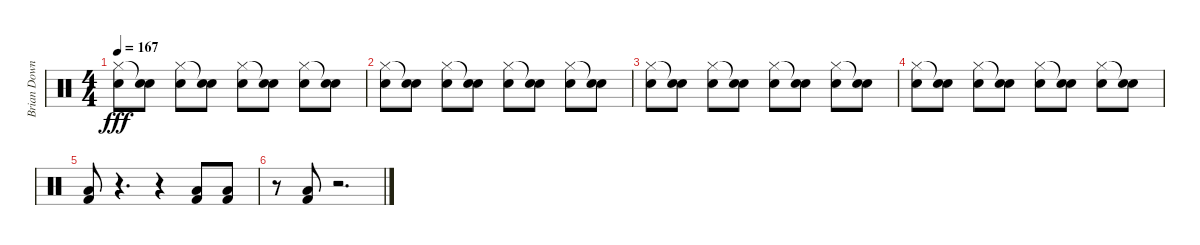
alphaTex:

\track ("Brian Downey" "Brian Down") {instrument percussion}
\staff {score}
\articulation defaults
\ts (4 4)
\tempo 167
\clef neutral
\ks c
("Hi-Hat (closed)" "Electric Snare (hit)").8{dy fff} ("Snare (hit)"{t} "Electric Snare (hit)").8 ("Hi-Hat (closed)" "Electric Snare (hit)").8 ("Snare (hit)"{t} "Electric Snare (hit)").8 ("Hi-Hat (closed)" "Electric Snare (hit)").8 ("Snare (hit)"{t} "Electric Snare (hit)").8 ("Hi-Hat (closed)" "Electric Snare (hit)").8 ("Snare (hit)"{t} "Electric Snare (hit)").8 |
("Hi-Hat (closed)" "Electric Snare (hit)").8 ("Snare (hit)"{t} "Electric Snare (hit)").8 ("Hi-Hat (closed)" "Electric Snare (hit)").8 ("Snare (hit)"{t} "Electric Snare (hit)").8 ("Hi-Hat (closed)" "Electric Snare (hit)").8 ("Snare (hit)"{t} "Electric Snare (hit)").8 ("Hi-Hat (closed)" "Electric Snare (hit)").8 ("Snare (hit)"{t} "Electric Snare (hit)").8 |
("Hi-Hat (closed)" "Electric Snare (hit)").8 ("Snare (hit)"{t} "Electric Snare (hit)").8 ("Hi-Hat (closed)" "Electric Snare (hit)").8 ("Snare (hit)"{t} "Electric Snare (hit)").8 ("Hi-Hat (closed)" "Electric Snare (hit)").8 ("Snare (hit)"{t} "Electric Snare (hit)").8 ("Hi-Hat (closed)" "Electric Snare (hit)").8 ("Snare (hit)"{t} "Electric Snare (hit)").8 |
("Hi-Hat (closed)" "Electric Snare (hit)").8 ("Snare (hit)"{t} "Electric Snare (hit)").8 ("Hi-Hat (closed)" "Electric Snare (hit)").8 ("Snare (hit)"{t} "Electric Snare (hit)").8 ("Hi-Hat (closed)" "Electric Snare (hit)").8 ("Snare (hit)"{t} "Electric Snare (hit)").8 ("Hi-Hat (closed)" "Electric Snare (hit)").8 ("Snare (hit)"{t} "Electric Snare (hit)").8 |
("Low Floor Tom (hit)" "Kick (hit) 2").8 r.4{d} r.4 ("Kick (hit) 2" "Low Floor Tom (hit)").8 ("Kick (hit) 2" "Low Floor Tom (hit)").8 |
r.8 ("Kick (hit) 2" "Low Floor Tom (hit)").8 r.2{d}
